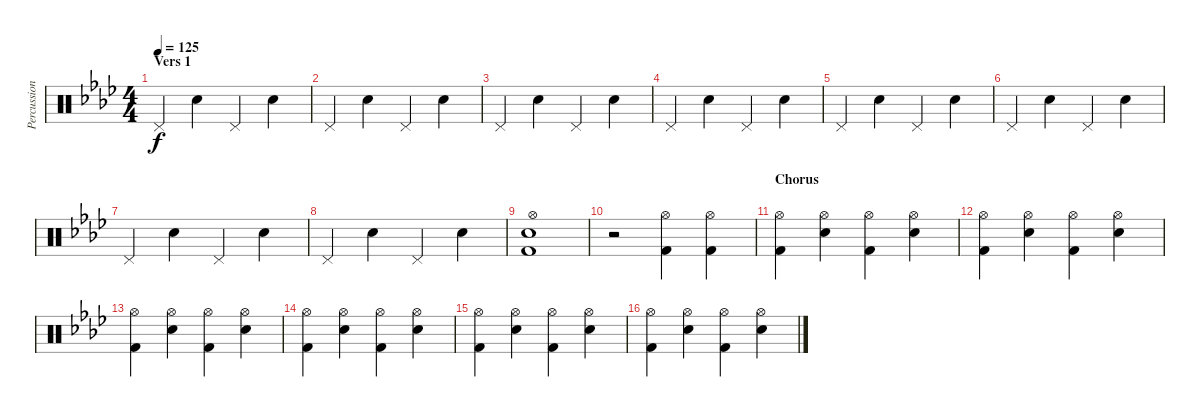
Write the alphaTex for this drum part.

\track ("Percussion" "Percussion") {instrument percussion}
\staff {score}
\articulation defaults
\ts (4 4)
\section ("" "Vers 1")
\tempo 125
\clef neutral
\ks fminor "Pedal Hi-Hat (hit)".4{dy f} "Snare (hit) 2".4 "Pedal Hi-Hat (hit)".4 "Snare (hit) 2".4
|
"Pedal Hi-Hat (hit)".4 "Snare (hit) 2".4 "Pedal Hi-Hat (hit)".4 "Snare (hit) 2".4 |
"Pedal Hi-Hat (hit)".4 "Snare (hit) 2".4 "Pedal Hi-Hat (hit)".4 "Snare (hit) 2".4 |
"Pedal Hi-Hat (hit)".4 "Snare (hit) 2".4 "Pedal Hi-Hat (hit)".4 "Snare (hit) 2".4 |
"Pedal Hi-Hat (hit)".4 "Snare (hit) 2".4 "Pedal Hi-Hat (hit)".4 "Snare (hit) 2".4 |
"Pedal Hi-Hat (hit)".4 "Snare (hit) 2".4 "Pedal Hi-Hat (hit)".4 "Snare (hit) 2".4 |
"Pedal Hi-Hat (hit)".4 "Snare (hit) 2".4 "Pedal Hi-Hat (hit)".4 "Snare (hit) 2".4 |
"Pedal Hi-Hat (hit)".4 "Snare (hit) 2".4 "Pedal Hi-Hat (hit)".4 "Snare (hit) 2".4 |
("Hi-Hat (open)" "Snare (hit) 2" "Kick (hit) 2").1 |
r.2 ("Hi-Hat (open)" "Kick (hit) 2").4 ("Hi-Hat (open)" "Kick (hit) 2").4 |
\section ("" "Chorus")
("Hi-Hat (open)" "Kick (hit) 2").4 ("Hi-Hat (open)" "Snare (hit) 2").4 ("Hi-Hat (open)" "Kick (hit) 2").4 ("Hi-Hat (open)" "Snare (hit) 2").4 |
("Hi-Hat (open)" "Kick (hit) 2").4 ("Hi-Hat (open)" "Snare (hit) 2").4 ("Hi-Hat (open)" "Kick (hit) 2").4 ("Hi-Hat (open)" "Snare (hit) 2").4 |
("Hi-Hat (open)" "Kick (hit) 2").4 ("Hi-Hat (open)" "Snare (hit) 2").4 ("Hi-Hat (open)" "Kick (hit) 2").4 ("Hi-Hat (open)" "Snare (hit) 2").4 |
("Hi-Hat (open)" "Kick (hit) 2").4 ("Hi-Hat (open)" "Snare (hit) 2").4 ("Hi-Hat (open)" "Kick (hit) 2").4 ("Hi-Hat (open)" "Snare (hit) 2").4 |
("Hi-Hat (open)" "Kick (hit) 2").4 ("Hi-Hat (open)" "Snare (hit) 2").4 ("Hi-Hat (open)" "Kick (hit) 2").4 ("Hi-Hat (open)" "Snare (hit) 2").4 |
("Hi-Hat (open)" "Kick (hit) 2").4 ("Hi-Hat (open)" "Snare (hit) 2").4 ("Hi-Hat (open)" "Kick (hit) 2").4 ("Hi-Hat (open)" "Snare (hit) 2").4
